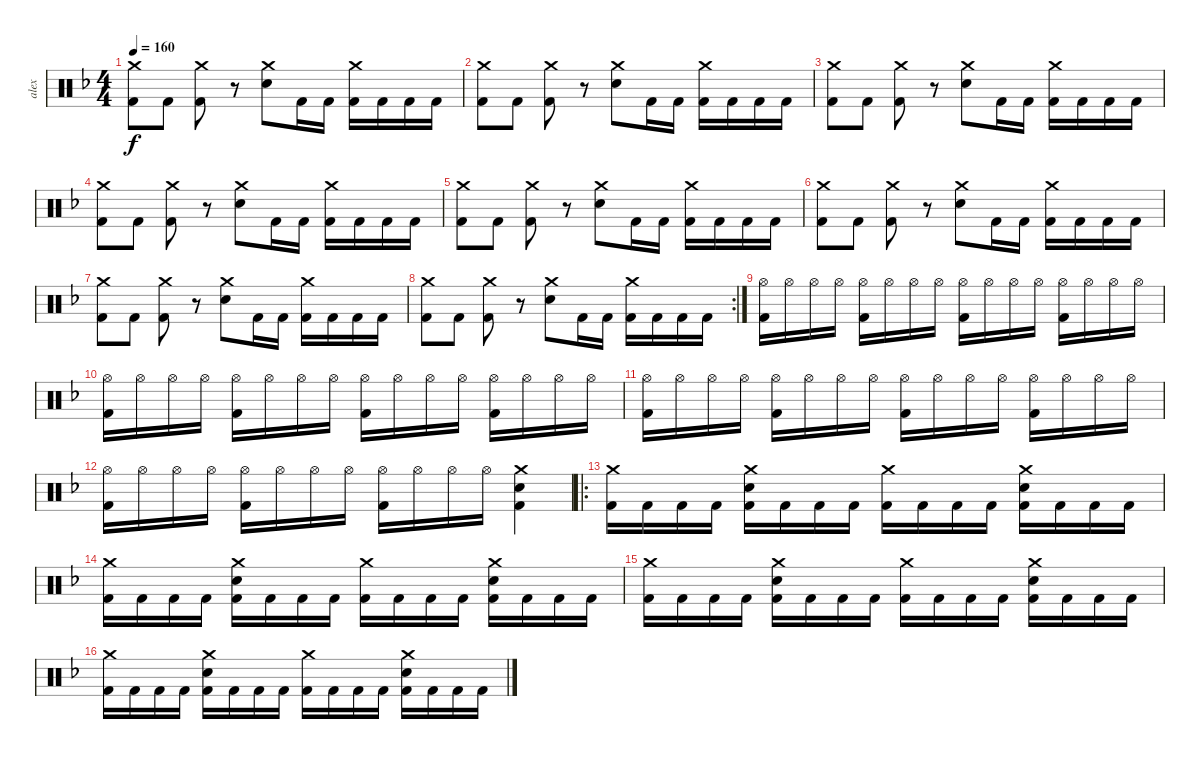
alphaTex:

\track ("alex" "alex") {instrument percussion}
\staff {score}
\articulation defaults
\ts (4 4)
\tempo 160
\clef neutral
\ks f
("Crash medium (hit)" "Kick (hit) 2").8{dy f} "Kick (hit) 2".8 ("Crash medium (hit)" "Kick (hit) 2").8 r.8 ("Crash medium (hit)" "Electric Snare (hit)").8 "Kick (hit) 2".16 "Kick (hit) 2".16 ("Kick (hit) 2" "Crash medium (hit)").16 "Kick (hit) 2".16 "Kick (hit) 2".16 "Kick (hit) 2".16 |
("Crash medium (hit)" "Kick (hit) 2").8 "Kick (hit) 2".8 ("Crash medium (hit)" "Kick (hit) 2").8 r.8 ("Crash medium (hit)" "Electric Snare (hit)").8 "Kick (hit) 2".16 "Kick (hit) 2".16 ("Kick (hit) 2" "Crash medium (hit)").16 "Kick (hit) 2".16 "Kick (hit) 2".16 "Kick (hit) 2".16 |
("Crash medium (hit)" "Kick (hit) 2").8 "Kick (hit) 2".8 ("Crash medium (hit)" "Kick (hit) 2").8 r.8 ("Crash medium (hit)" "Electric Snare (hit)").8 "Kick (hit) 2".16 "Kick (hit) 2".16 ("Kick (hit) 2" "Crash medium (hit)").16 "Kick (hit) 2".16 "Kick (hit) 2".16 "Kick (hit) 2".16 |
("Crash medium (hit)" "Kick (hit) 2").8 "Kick (hit) 2".8 ("Crash medium (hit)" "Kick (hit) 2").8 r.8 ("Crash medium (hit)" "Electric Snare (hit)").8 "Kick (hit) 2".16 "Kick (hit) 2".16 ("Kick (hit) 2" "Crash medium (hit)").16 "Kick (hit) 2".16 "Kick (hit) 2".16 "Kick (hit) 2".16 |
("Crash medium (hit)" "Kick (hit) 2").8 "Kick (hit) 2".8 ("Crash medium (hit)" "Kick (hit) 2").8 r.8 ("Crash medium (hit)" "Electric Snare (hit)").8 "Kick (hit) 2".16 "Kick (hit) 2".16 ("Kick (hit) 2" "Crash medium (hit)").16 "Kick (hit) 2".16 "Kick (hit) 2".16 "Kick (hit) 2".16 |
("Crash medium (hit)" "Kick (hit) 2").8 "Kick (hit) 2".8 ("Crash medium (hit)" "Kick (hit) 2").8 r.8 ("Crash medium (hit)" "Electric Snare (hit)").8 "Kick (hit) 2".16 "Kick (hit) 2".16 ("Kick (hit) 2" "Crash medium (hit)").16 "Kick (hit) 2".16 "Kick (hit) 2".16 "Kick (hit) 2".16 |
("Crash medium (hit)" "Kick (hit) 2").8 "Kick (hit) 2".8 ("Crash medium (hit)" "Kick (hit) 2").8 r.8 ("Crash medium (hit)" "Electric Snare (hit)").8 "Kick (hit) 2".16 "Kick (hit) 2".16 ("Kick (hit) 2" "Crash medium (hit)").16 "Kick (hit) 2".16 "Kick (hit) 2".16 "Kick (hit) 2".16 |
\rc 2
("Crash medium (hit)" "Kick (hit) 2").8 "Kick (hit) 2".8 ("Crash medium (hit)" "Kick (hit) 2").8 r.8 ("Crash medium (hit)" "Electric Snare (hit)").8 "Kick (hit) 2".16 "Kick (hit) 2".16 ("Kick (hit) 2" "Crash medium (hit)").16 "Kick (hit) 2".16 "Kick (hit) 2".16 "Kick (hit) 2".16 |
("Hi-Hat (open)" "Kick (hit) 2").16 "Hi-Hat (open)".16 "Hi-Hat (open)".16 "Hi-Hat (open)".16 ("Kick (hit) 2" "Hi-Hat (open)").16 "Hi-Hat (open)".16 "Hi-Hat (open)".16 "Hi-Hat (open)".16 ("Kick (hit) 2" "Hi-Hat (open)").16 "Hi-Hat (open)".16 "Hi-Hat (open)".16 "Hi-Hat (open)".16 ("Kick (hit) 2" "Hi-Hat (open)").16 "Hi-Hat (open)".16 "Hi-Hat (open)".16 "Hi-Hat (open)".16 |
("Hi-Hat (open)" "Kick (hit) 2").16 "Hi-Hat (open)".16 "Hi-Hat (open)".16 "Hi-Hat (open)".16 ("Kick (hit) 2" "Hi-Hat (open)").16 "Hi-Hat (open)".16 "Hi-Hat (open)".16 "Hi-Hat (open)".16 ("Kick (hit) 2" "Hi-Hat (open)").16 "Hi-Hat (open)".16 "Hi-Hat (open)".16 "Hi-Hat (open)".16 ("Kick (hit) 2" "Hi-Hat (open)").16 "Hi-Hat (open)".16 "Hi-Hat (open)".16 "Hi-Hat (open)".16 |
("Hi-Hat (open)" "Kick (hit) 2").16 "Hi-Hat (open)".16 "Hi-Hat (open)".16 "Hi-Hat (open)".16 ("Kick (hit) 2" "Hi-Hat (open)").16 "Hi-Hat (open)".16 "Hi-Hat (open)".16 "Hi-Hat (open)".16 ("Kick (hit) 2" "Hi-Hat (open)").16 "Hi-Hat (open)".16 "Hi-Hat (open)".16 "Hi-Hat (open)".16 ("Kick (hit) 2" "Hi-Hat (open)").16 "Hi-Hat (open)".16 "Hi-Hat (open)".16 "Hi-Hat (open)".16 |
("Hi-Hat (open)" "Kick (hit) 2").16 "Hi-Hat (open)".16 "Hi-Hat (open)".16 "Hi-Hat (open)".16 ("Kick (hit) 2" "Hi-Hat (open)").16 "Hi-Hat (open)".16 "Hi-Hat (open)".16 "Hi-Hat (open)".16 ("Kick (hit) 2" "Hi-Hat (open)").16 "Hi-Hat (open)".16 "Hi-Hat (open)".16 "Hi-Hat (open)".16 ("Kick (hit) 2" "Crash medium (hit)" "Electric Snare (hit)").4 |
\ro
("Kick (hit) 2" "Crash medium (hit)").16 "Kick (hit) 2".16 "Kick (hit) 2".16 "Kick (hit) 2".16 ("Electric Snare (hit)" "Kick (hit) 2" "Crash medium (hit)").16 "Kick (hit) 2".16 "Kick (hit) 2".16 "Kick (hit) 2".16 ("Kick (hit) 2" "Crash medium (hit)").16 "Kick (hit) 2".16 "Kick (hit) 2".16 "Kick (hit) 2".16 ("Electric Snare (hit)" "Kick (hit) 2" "Crash medium (hit)").16 "Kick (hit) 2".16 "Kick (hit) 2".16 "Kick (hit) 2".16 |
("Kick (hit) 2" "Crash medium (hit)").16 "Kick (hit) 2".16 "Kick (hit) 2".16 "Kick (hit) 2".16 ("Electric Snare (hit)" "Kick (hit) 2" "Crash medium (hit)").16 "Kick (hit) 2".16 "Kick (hit) 2".16 "Kick (hit) 2".16 ("Kick (hit) 2" "Crash medium (hit)").16 "Kick (hit) 2".16 "Kick (hit) 2".16 "Kick (hit) 2".16 ("Electric Snare (hit)" "Kick (hit) 2" "Crash medium (hit)").16 "Kick (hit) 2".16 "Kick (hit) 2".16 "Kick (hit) 2".16 |
("Kick (hit) 2" "Crash medium (hit)").16 "Kick (hit) 2".16 "Kick (hit) 2".16 "Kick (hit) 2".16 ("Electric Snare (hit)" "Kick (hit) 2" "Crash medium (hit)").16 "Kick (hit) 2".16 "Kick (hit) 2".16 "Kick (hit) 2".16 ("Kick (hit) 2" "Crash medium (hit)").16 "Kick (hit) 2".16 "Kick (hit) 2".16 "Kick (hit) 2".16 ("Electric Snare (hit)" "Kick (hit) 2" "Crash medium (hit)").16 "Kick (hit) 2".16 "Kick (hit) 2".16 "Kick (hit) 2".16 |
("Kick (hit) 2" "Crash medium (hit)").16 "Kick (hit) 2".16 "Kick (hit) 2".16 "Kick (hit) 2".16 ("Electric Snare (hit)" "Kick (hit) 2" "Crash medium (hit)").16 "Kick (hit) 2".16 "Kick (hit) 2".16 "Kick (hit) 2".16 ("Kick (hit) 2" "Crash medium (hit)").16 "Kick (hit) 2".16 "Kick (hit) 2".16 "Kick (hit) 2".16 ("Electric Snare (hit)" "Kick (hit) 2" "Crash medium (hit)").16 "Kick (hit) 2".16 "Kick (hit) 2".16 "Kick (hit) 2".16
